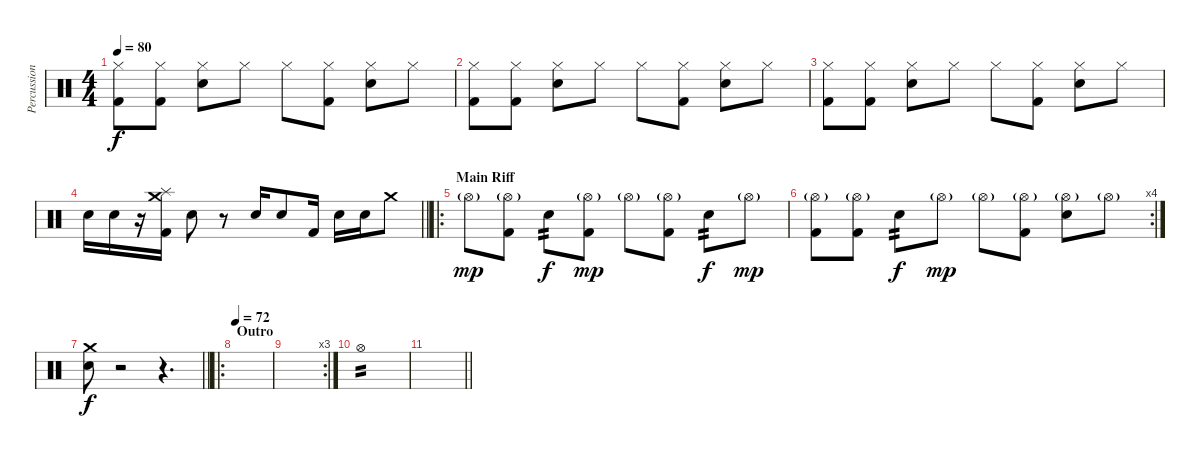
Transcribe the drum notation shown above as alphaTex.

\track ("Percussion" "Percussion") {instrument percussion}
\staff {score}
\articulation defaults
\ts (4 4)
\tempo 80
\clef neutral
\ks c
("Hi-Hat (closed)" "Kick (hit) 2").8{dy f} ("Hi-Hat (closed)" "Kick (hit) 2").8 ("Hi-Hat (closed)" "Snare (hit) 2").8 "Hi-Hat (closed)".8 "Hi-Hat (closed)".8 ("Hi-Hat (closed)" "Kick (hit) 2").8 ("Hi-Hat (closed)" "Snare (hit) 2").8 "Hi-Hat (closed)".8 |
("Hi-Hat (closed)" "Kick (hit) 2").8 ("Hi-Hat (closed)" "Kick (hit) 2").8 ("Hi-Hat (closed)" "Snare (hit) 2").8 "Hi-Hat (closed)".8 "Hi-Hat (closed)".8 ("Hi-Hat (closed)" "Kick (hit) 2").8 ("Hi-Hat (closed)" "Snare (hit) 2").8 "Hi-Hat (closed)".8 |
("Hi-Hat (closed)" "Kick (hit) 2").8 ("Hi-Hat (closed)" "Kick (hit) 2").8 ("Hi-Hat (closed)" "Snare (hit) 2").8 "Hi-Hat (closed)".8 "Hi-Hat (closed)".8 ("Hi-Hat (closed)" "Kick (hit) 2").8 ("Hi-Hat (closed)" "Snare (hit) 2").8 "Hi-Hat (closed)".8 |
\barLineRight lightlight "Snare (hit) 2".16 "Snare (hit) 2".16
r.16 ("Crash medium (hit)" "Splash (hit)" "Kick (hit) 2").16 "Snare (hit) 2".8 r.8 "Snare (hit) 2".16 "Snare (hit) 2".8 "Kick (hit) 2".16 "Snare (hit) 2".16 "Snare (hit) 2".16 "Crash medium (hit)".8 |
\ro
\section ("" "Main Riff")
"Hi-Hat (open)"{g}.8{dy mp} ("Hi-Hat (open)"{g} "Kick (hit) 2").8 "Snare (hit) 2".8{tp 2 dy f} ("Hi-Hat (open)"{g} "Kick (hit) 2").8{dy mp} "Hi-Hat (open)"{g}.8 ("Hi-Hat (open)"{g} "Kick (hit) 2").8 "Snare (hit) 2".8{tp 2 dy f} "Hi-Hat (open)"{g}.8{dy mp} |
\rc 4
("Hi-Hat (open)"{g} "Kick (hit) 2").8 ("Hi-Hat (open)"{g} "Kick (hit) 2").8 "Snare (hit) 2".8{tp 2 dy f} "Hi-Hat (open)"{g}.8{dy mp} "Hi-Hat (open)"{g}.8 ("Hi-Hat (open)"{g} "Kick (hit) 2").8 ("Hi-Hat (open)"{g} "Snare (hit) 2").8 "Hi-Hat (open)"{g}.8 |
\barLineRight lightlight
("Crash medium (hit)" "Snare (hit) 2").8{dy f} r.2 r.4{d} |
\ro
\section ("" "Outro")
\tempo 72
|
\rc 3
|
"Hi-Hat (open)".1{tp 2 volume 13} |
\barLineRight lightlight
